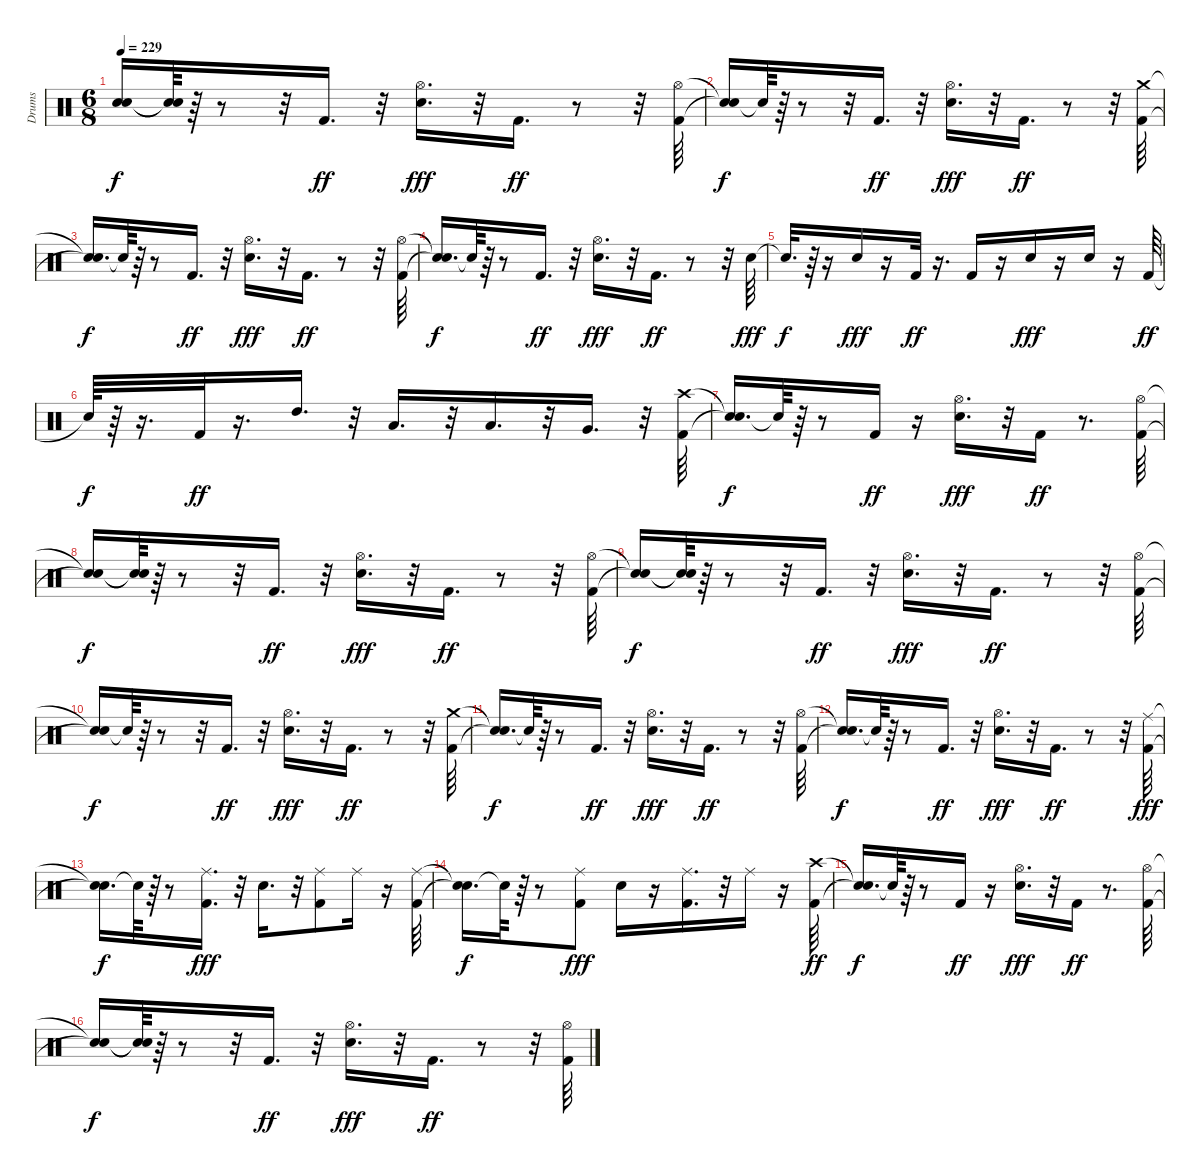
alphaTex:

\track ("Drums" "Drums") {instrument percussion}
\staff {score}
\articulation defaults
\ts (6 8)
\tempo 229
\clef neutral
\ks c
("Snare (hit)"{t} "Snare (hit)"{t}).16{dy f} ("Snare (hit)"{t} "Snare (hit)"{t}).64 r.64 r.8 r.32 "Kick (hit) 2".16{d dy ff} r.32 ("Snare (hit) 2" "Hi-Hat (open)").16{d dy fff} r.32 "Kick (hit) 2".16{d dy ff} r.8 r.32 ("Kick (hit) 2" "Hi-Hat (open)").64 |
("Snare (hit)"{t} "Snare (hit)"{t}).16{dy f} "Snare (hit)"{t}.64 r.64 r.8 r.32 "Kick (hit) 2".16{d dy ff} r.32 ("Snare (hit) 2" "Hi-Hat (open)").16{d dy fff} r.32 "Kick (hit) 2".16{d dy ff} r.8 r.32 ("Kick (hit) 2" "Crash medium (hit)").64 |
("Snare (hit)"{t} "Snare (hit)"{t}).16{d dy f} "Snare (hit)"{t}.64 r.64 r.8 "Kick (hit) 2".16{d dy ff} r.32 ("Snare (hit) 2" "Hi-Hat (open)").16{d dy fff} r.32 "Kick (hit) 2".16{d dy ff} r.8 r.32 ("Kick (hit) 2" "Hi-Hat (open)").64 |
("Snare (hit)"{t} "Snare (hit)"{t}).16{d dy f} "Snare (hit)"{t}.64 r.64 r.8 "Kick (hit) 2".16{d dy ff} r.32 ("Snare (hit) 2" "Hi-Hat (open)").16{d dy fff} r.32 "Kick (hit) 2".16{d dy ff} r.8 r.32 "Snare (hit) 2".64{dy fff} |
"Snare (hit)"{t}.32{d dy f} r.64 r.16 "Snare (hit) 2".16{dy fff} r.16 "Kick (hit) 2".32{dy ff} r.16{d} "Kick (hit) 2".16 r.16 "Snare (hit) 2".16{dy fff} r.16 "Snare (hit) 2".16 r.16 "Kick (hit) 2".64{dy ff} |
"Snare (hit)"{t}.64{dy f} r.64 r.16{d} "Kick (hit) 2".32{dy ff} r.16{d} "High Tom (hit)".16{d} r.32 "Low Tom (hit)".16{d} r.32 "Low Tom (hit)".16{d} r.32 "Very Low Tom (hit)".16{d} r.32 ("Kick (hit) 2" "Crash high (hit)").64 |
("Snare (hit)"{t} "Snare (hit)"{t}).16{d dy f} "Snare (hit)"{t}.64 r.64 r.8 "Kick (hit) 2".16{dy ff} r.16 ("Snare (hit) 2" "Hi-Hat (open)").16{d dy fff} r.32 "Kick (hit) 2".16{dy ff} r.8{d} ("Kick (hit) 2" "Hi-Hat (open)").64 |
("Snare (hit)"{t} "Snare (hit)"{t}).16{dy f} ("Snare (hit)"{t} "Snare (hit)"{t}).64 r.64 r.8 r.32 "Kick (hit) 2".16{d dy ff} r.32 ("Snare (hit) 2" "Hi-Hat (open)").16{d dy fff} r.32 "Kick (hit) 2".16{d dy ff} r.8 r.32 ("Kick (hit) 2" "Hi-Hat (open)").64 |
("Snare (hit)"{t} "Snare (hit)"{t}).16{dy f} ("Snare (hit)"{t} "Snare (hit)"{t}).64 r.64 r.8 r.32 "Kick (hit) 2".16{d dy ff} r.32 ("Snare (hit) 2" "Hi-Hat (open)").16{d dy fff} r.32 "Kick (hit) 2".16{d dy ff} r.8 r.32 ("Kick (hit) 2" "Hi-Hat (open)").64 |
("Snare (hit)"{t} "Snare (hit)"{t}).16{dy f} "Snare (hit)"{t}.64 r.64 r.8 r.32 "Kick (hit) 2".16{d dy ff} r.32 ("Snare (hit) 2" "Hi-Hat (open)").16{d dy fff} r.32 "Kick (hit) 2".16{d dy ff} r.8 r.32 ("Kick (hit) 2" "Crash medium (hit)").64 |
("Snare (hit)"{t} "Snare (hit)"{t}).16{d dy f} "Snare (hit)"{t}.64 r.64 r.8 "Kick (hit) 2".16{d dy ff} r.32 ("Snare (hit) 2" "Hi-Hat (open)").16{d dy fff} r.32 "Kick (hit) 2".16{d dy ff} r.8 r.32 ("Kick (hit) 2" "Hi-Hat (open)").64 |
("Snare (hit)"{t} "Snare (hit)"{t}).16{d dy f} "Snare (hit)"{t}.64 r.64 r.8 "Kick (hit) 2".16{d dy ff} r.32 ("Snare (hit) 2" "Hi-Hat (open)").16{d dy fff} r.32 "Kick (hit) 2".16{d dy ff} r.8 r.32 ("Kick (hit) 2" "Ride (middle)").64{dy fff} |
("Snare (hit)"{t} "Snare (hit)"{t}).16{d dy f} "Snare (hit)"{t}.64 r.64 r.8 ("Kick (hit) 2" "Ride (middle)").16{d dy fff} r.32 "Snare (hit) 2".16{d} r.32 ("Kick (hit) 2" "Ride (middle)").8 "Ride (middle)".16 r.16 ("Kick (hit) 2" "Ride (middle)").64 |
("Snare (hit)"{t} "Snare (hit)"{t}).16{d dy f} "Snare (hit)"{t}.64 r.64 r.8 ("Kick (hit) 2" "Ride (middle)").8{dy fff} "Snare (hit) 2".16 r.16 ("Kick (hit) 2" "Ride (middle)").16{d} r.32 "Ride (middle)".16 r.16 ("Kick (hit) 2" "Crash high (hit)").64{dy ff} |
("Snare (hit)"{t} "Snare (hit)"{t}).16{d dy f} "Snare (hit)"{t}.64 r.64 r.8 "Kick (hit) 2".16{dy ff} r.16 ("Snare (hit) 2" "Hi-Hat (open)").16{d dy fff} r.32 "Kick (hit) 2".16{dy ff} r.8{d} ("Kick (hit) 2" "Hi-Hat (open)").64 |
("Snare (hit)"{t} "Snare (hit)"{t}).16{dy f} ("Snare (hit)"{t} "Snare (hit)"{t}).64 r.64 r.8 r.32 "Kick (hit) 2".16{d dy ff} r.32 ("Snare (hit) 2" "Hi-Hat (open)").16{d dy fff} r.32 "Kick (hit) 2".16{d dy ff} r.8 r.32 ("Kick (hit) 2" "Hi-Hat (open)").64
